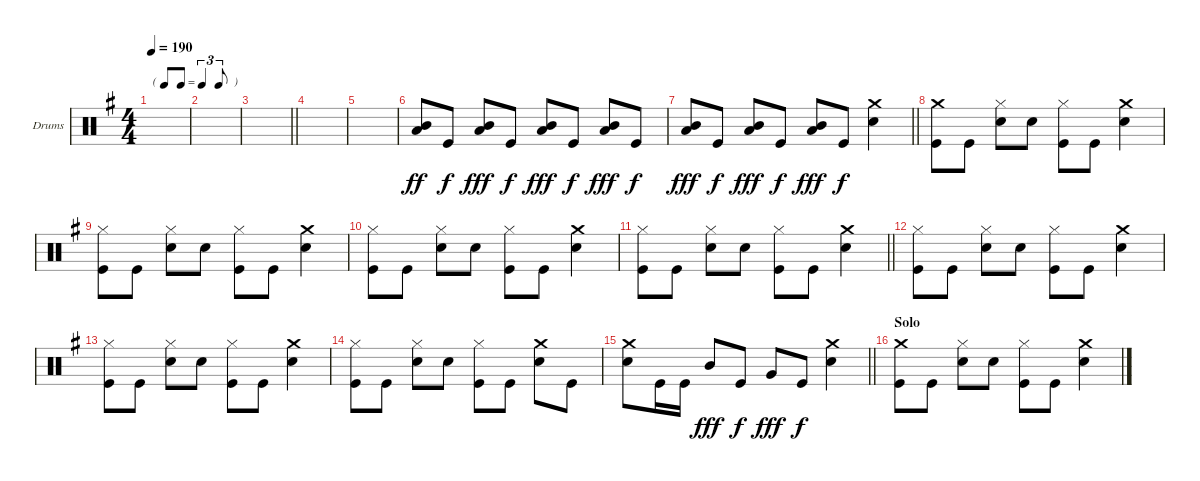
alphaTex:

\bracketExtendMode groupsimilarinstruments
\firstSystemTrackNameOrientation horizontal
\otherSystemsTrackNameOrientation horizontal
\track ("Drums" "Drums") {instrument percussion}
\staff {score}
\articulation defaults
\ts (4 4)
\tf triplet8th
\tempo 190
\clef neutral
\ks g
|
|
\barLineRight lightlight
|
|
|
("Low Tom (hit)" "Mid Tom (hit)").8{dy ff} "Kick (hit)".8{dy f} ("Low Tom (hit)" "Mid Tom (hit)").8{dy fff} "Kick (hit)".8{dy f} ("Low Tom (hit)" "Mid Tom (hit)").8{dy fff} "Kick (hit)".8{dy f} ("Low Tom (hit)" "Mid Tom (hit)").8{dy fff} "Kick (hit)".8{dy f} |
\barLineRight lightlight
("Low Tom (hit)" "Mid Tom (hit)").8{dy fff} "Kick (hit)".8{dy f} ("Low Tom (hit)" "Mid Tom (hit)").8{dy fff} "Kick (hit)".8{dy f} ("Low Tom (hit)" "Mid Tom (hit)").8{dy fff} "Kick (hit)".8{dy f} ("Crash medium (hit)" "Snare (hit) 2").4 |
("Crash medium (hit)" "Kick (hit)").8 "Kick (hit)".8 ("Snare (hit) 2" "Hi-Hat (closed)").8 "Snare (hit) 2".8 ("Kick (hit)" "Hi-Hat (closed)").8 "Kick (hit)".8 ("Crash medium (hit)" "Snare (hit) 2").4 |
("Hi-Hat (closed)" "Kick (hit)").8 "Kick (hit)".8 ("Snare (hit) 2" "Hi-Hat (closed)").8 "Snare (hit) 2".8 ("Kick (hit)" "Hi-Hat (closed)").8 "Kick (hit)".8 ("Crash medium (hit)" "Snare (hit) 2").4 |
("Hi-Hat (closed)" "Kick (hit)").8 "Kick (hit)".8 ("Snare (hit) 2" "Hi-Hat (closed)").8 "Snare (hit) 2".8 ("Kick (hit)" "Hi-Hat (closed)").8 "Kick (hit)".8 ("Crash medium (hit)" "Snare (hit) 2").4 |
\barLineRight lightlight
("Hi-Hat (closed)" "Kick (hit)").8 "Kick (hit)".8 ("Snare (hit) 2" "Hi-Hat (closed)").8 "Snare (hit) 2".8 ("Kick (hit)" "Hi-Hat (closed)").8 "Kick (hit)".8 ("Crash medium (hit)" "Snare (hit) 2").4 |
("Hi-Hat (closed)" "Kick (hit)").8 "Kick (hit)".8 ("Snare (hit) 2" "Hi-Hat (closed)").8 "Snare (hit) 2".8 ("Kick (hit)" "Hi-Hat (closed)").8 "Kick (hit)".8 ("Crash medium (hit)" "Snare (hit) 2").4 |
("Hi-Hat (closed)" "Kick (hit)").8 "Kick (hit)".8 ("Snare (hit) 2" "Hi-Hat (closed)").8 "Snare (hit) 2".8 ("Kick (hit)" "Hi-Hat (closed)").8 "Kick (hit)".8 ("Crash medium (hit)" "Snare (hit) 2").4 |
("Hi-Hat (closed)" "Kick (hit)").8 "Kick (hit)".8 ("Snare (hit) 2" "Hi-Hat (closed)").8 "Snare (hit) 2".8 ("Kick (hit)" "Hi-Hat (closed)").8 "Kick (hit)".8 ("Crash medium (hit)" "Snare (hit) 2").8 "Kick (hit)".8 |
\barLineRight lightlight
("Snare (hit) 2" "Crash medium (hit)").8 "Kick (hit)".16 "Kick (hit)".16 "Mid Tom (hit)".8{dy fff} "Kick (hit)".8{dy f} "Very Low Tom (hit)".8{dy fff} "Kick (hit)".8{dy f} ("Snare (hit) 2" "Crash medium (hit)").4 |
\section ("" "Solo")
("Crash medium (hit)" "Kick (hit)").8 "Kick (hit)".8 ("Hi-Hat (closed)" "Snare (hit) 2").8 "Snare (hit) 2".8 ("Hi-Hat (closed)" "Kick (hit)").8 "Kick (hit)".8 ("Crash medium (hit)" "Snare (hit) 2").4
